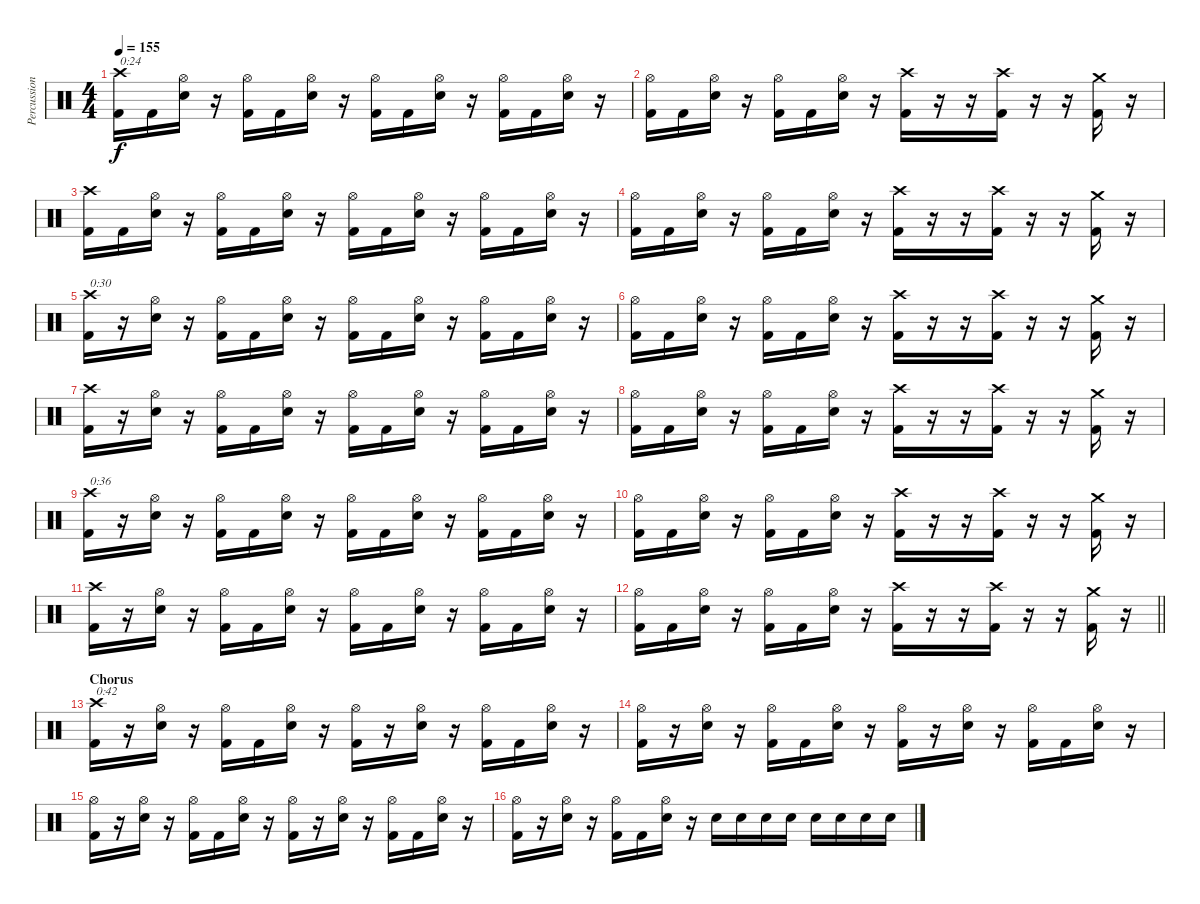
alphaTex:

\track ("Percussion" "Percussion") {instrument percussion}
\staff {score}
\articulation defaults
\ts (4 4)
\tempo 155
\clef neutral
\ks c
("Crash high (hit)" "Kick (hit) 2").16{txt "0:24" dy f} "Kick (hit) 2".16 ("Hi-Hat (open)" "Snare (hit) 2").16 r.16 ("Hi-Hat (open)" "Kick (hit) 2").16 "Kick (hit) 2".16 ("Hi-Hat (open)" "Snare (hit) 2").16 r.16 ("Hi-Hat (open)" "Kick (hit) 2").16 "Kick (hit) 2".16 ("Hi-Hat (open)" "Snare (hit) 2").16 r.16 ("Hi-Hat (open)" "Kick (hit) 2").16 "Kick (hit) 2".16 ("Hi-Hat (open)" "Snare (hit) 2").16 r.16 |
("Hi-Hat (open)" "Kick (hit) 2").16 "Kick (hit) 2".16 ("Hi-Hat (open)" "Snare (hit) 2").16 r.16 ("Hi-Hat (open)" "Kick (hit) 2").16 "Kick (hit) 2".16 ("Hi-Hat (open)" "Snare (hit) 2").16 r.16 ("Crash high (hit)" "Kick (hit) 2").16 r.16 r.16 ("Crash high (hit)" "Kick (hit) 2").16 r.16 r.16 ("Crash medium (hit)" "Kick (hit) 2").16 r.16 |
("Crash high (hit)" "Kick (hit) 2").16 "Kick (hit) 2".16 ("Hi-Hat (open)" "Snare (hit) 2").16 r.16 ("Hi-Hat (open)" "Kick (hit) 2").16 "Kick (hit) 2".16 ("Hi-Hat (open)" "Snare (hit) 2").16 r.16 ("Hi-Hat (open)" "Kick (hit) 2").16 "Kick (hit) 2".16 ("Hi-Hat (open)" "Snare (hit) 2").16 r.16 ("Hi-Hat (open)" "Kick (hit) 2").16 "Kick (hit) 2".16 ("Hi-Hat (open)" "Snare (hit) 2").16 r.16 |
("Hi-Hat (open)" "Kick (hit) 2").16 "Kick (hit) 2".16 ("Hi-Hat (open)" "Snare (hit) 2").16 r.16 ("Hi-Hat (open)" "Kick (hit) 2").16 "Kick (hit) 2".16 ("Hi-Hat (open)" "Snare (hit) 2").16 r.16 ("Crash high (hit)" "Kick (hit) 2").16 r.16 r.16 ("Crash high (hit)" "Kick (hit) 2").16 r.16 r.16 ("Crash medium (hit)" "Kick (hit) 2").16 r.16 |
("Crash high (hit)" "Kick (hit) 2").16{txt "0:30"} r.16 ("Hi-Hat (open)" "Snare (hit) 2").16 r.16 ("Hi-Hat (open)" "Kick (hit) 2").16 "Kick (hit) 2".16 ("Hi-Hat (open)" "Snare (hit) 2").16 r.16 ("Hi-Hat (open)" "Kick (hit) 2").16 "Kick (hit) 2".16 ("Hi-Hat (open)" "Snare (hit) 2").16 r.16 ("Hi-Hat (open)" "Kick (hit) 2").16 "Kick (hit) 2".16 ("Hi-Hat (open)" "Snare (hit) 2").16 r.16 |
("Hi-Hat (open)" "Kick (hit) 2").16 "Kick (hit) 2".16 ("Hi-Hat (open)" "Snare (hit) 2").16 r.16 ("Hi-Hat (open)" "Kick (hit) 2").16 "Kick (hit) 2".16 ("Hi-Hat (open)" "Snare (hit) 2").16 r.16 ("Crash high (hit)" "Kick (hit) 2").16 r.16 r.16 ("Crash high (hit)" "Kick (hit) 2").16 r.16 r.16 ("Crash medium (hit)" "Kick (hit) 2").16 r.16 |
("Crash high (hit)" "Kick (hit) 2").16 r.16 ("Hi-Hat (open)" "Snare (hit) 2").16 r.16 ("Hi-Hat (open)" "Kick (hit) 2").16 "Kick (hit) 2".16 ("Hi-Hat (open)" "Snare (hit) 2").16 r.16 ("Hi-Hat (open)" "Kick (hit) 2").16 "Kick (hit) 2".16 ("Hi-Hat (open)" "Snare (hit) 2").16 r.16 ("Hi-Hat (open)" "Kick (hit) 2").16 "Kick (hit) 2".16 ("Hi-Hat (open)" "Snare (hit) 2").16 r.16 |
("Hi-Hat (open)" "Kick (hit) 2").16 "Kick (hit) 2".16 ("Hi-Hat (open)" "Snare (hit) 2").16 r.16 ("Hi-Hat (open)" "Kick (hit) 2").16 "Kick (hit) 2".16 ("Hi-Hat (open)" "Snare (hit) 2").16 r.16 ("Crash high (hit)" "Kick (hit) 2").16 r.16 r.16 ("Crash high (hit)" "Kick (hit) 2").16 r.16 r.16 ("Crash medium (hit)" "Kick (hit) 2").16 r.16 |
("Crash high (hit)" "Kick (hit) 2").16{txt "0:36"} r.16 ("Hi-Hat (open)" "Snare (hit) 2").16 r.16 ("Hi-Hat (open)" "Kick (hit) 2").16 "Kick (hit) 2".16 ("Hi-Hat (open)" "Snare (hit) 2").16 r.16 ("Hi-Hat (open)" "Kick (hit) 2").16 "Kick (hit) 2".16 ("Hi-Hat (open)" "Snare (hit) 2").16 r.16 ("Hi-Hat (open)" "Kick (hit) 2").16 "Kick (hit) 2".16 ("Hi-Hat (open)" "Snare (hit) 2").16 r.16 |
("Hi-Hat (open)" "Kick (hit) 2").16 "Kick (hit) 2".16 ("Hi-Hat (open)" "Snare (hit) 2").16 r.16 ("Hi-Hat (open)" "Kick (hit) 2").16 "Kick (hit) 2".16 ("Hi-Hat (open)" "Snare (hit) 2").16 r.16 ("Crash high (hit)" "Kick (hit) 2").16 r.16 r.16 ("Crash high (hit)" "Kick (hit) 2").16 r.16 r.16 ("Crash medium (hit)" "Kick (hit) 2").16 r.16 |
("Crash high (hit)" "Kick (hit) 2").16 r.16 ("Hi-Hat (open)" "Snare (hit) 2").16 r.16 ("Hi-Hat (open)" "Kick (hit) 2").16 "Kick (hit) 2".16 ("Hi-Hat (open)" "Snare (hit) 2").16 r.16 ("Hi-Hat (open)" "Kick (hit) 2").16 "Kick (hit) 2".16 ("Hi-Hat (open)" "Snare (hit) 2").16 r.16 ("Hi-Hat (open)" "Kick (hit) 2").16 "Kick (hit) 2".16 ("Hi-Hat (open)" "Snare (hit) 2").16 r.16 |
\barLineRight lightlight
("Hi-Hat (open)" "Kick (hit) 2").16 "Kick (hit) 2".16 ("Hi-Hat (open)" "Snare (hit) 2").16 r.16 ("Hi-Hat (open)" "Kick (hit) 2").16 "Kick (hit) 2".16 ("Hi-Hat (open)" "Snare (hit) 2").16 r.16 ("Crash high (hit)" "Kick (hit) 2").16 r.16 r.16 ("Crash high (hit)" "Kick (hit) 2").16 r.16 r.16 ("Crash medium (hit)" "Kick (hit) 2").16 r.16 |
\section ("" "Chorus")
("Crash high (hit)" "Kick (hit) 2").16{txt "0:42"} r.16 ("Hi-Hat (open)" "Snare (hit) 2").16 r.16 ("Hi-Hat (open)" "Kick (hit) 2").16 "Kick (hit) 2".16 ("Hi-Hat (open)" "Snare (hit) 2").16 r.16 ("Hi-Hat (open)" "Kick (hit) 2").16 r.16 ("Hi-Hat (open)" "Snare (hit) 2").16 r.16 ("Hi-Hat (open)" "Kick (hit) 2").16 "Kick (hit) 2".16 ("Hi-Hat (open)" "Snare (hit) 2").16 r.16 |
("Hi-Hat (open)" "Kick (hit) 2").16 r.16 ("Hi-Hat (open)" "Snare (hit) 2").16 r.16 ("Hi-Hat (open)" "Kick (hit) 2").16 "Kick (hit) 2".16 ("Hi-Hat (open)" "Snare (hit) 2").16 r.16 ("Hi-Hat (open)" "Kick (hit) 2").16 r.16 ("Hi-Hat (open)" "Snare (hit) 2").16 r.16 ("Hi-Hat (open)" "Kick (hit) 2").16 "Kick (hit) 2".16 ("Hi-Hat (open)" "Snare (hit) 2").16 r.16 |
("Hi-Hat (open)" "Kick (hit) 2").16 r.16 ("Hi-Hat (open)" "Snare (hit) 2").16 r.16 ("Hi-Hat (open)" "Kick (hit) 2").16 "Kick (hit) 2".16 ("Hi-Hat (open)" "Snare (hit) 2").16 r.16 ("Hi-Hat (open)" "Kick (hit) 2").16 r.16 ("Hi-Hat (open)" "Snare (hit) 2").16 r.16 ("Hi-Hat (open)" "Kick (hit) 2").16 "Kick (hit) 2".16 ("Hi-Hat (open)" "Snare (hit) 2").16 r.16 |
("Hi-Hat (open)" "Kick (hit) 2").16 r.16 ("Hi-Hat (open)" "Snare (hit) 2").16 r.16 ("Hi-Hat (open)" "Kick (hit) 2").16 "Kick (hit) 2".16 ("Hi-Hat (open)" "Snare (hit) 2").16 r.16 "Snare (hit) 2".16 "Snare (hit) 2".16 "Snare (hit) 2".16 "Snare (hit) 2".16 "Snare (hit) 2".16 "Snare (hit) 2".16 "Snare (hit) 2".16 "Snare (hit) 2".16
